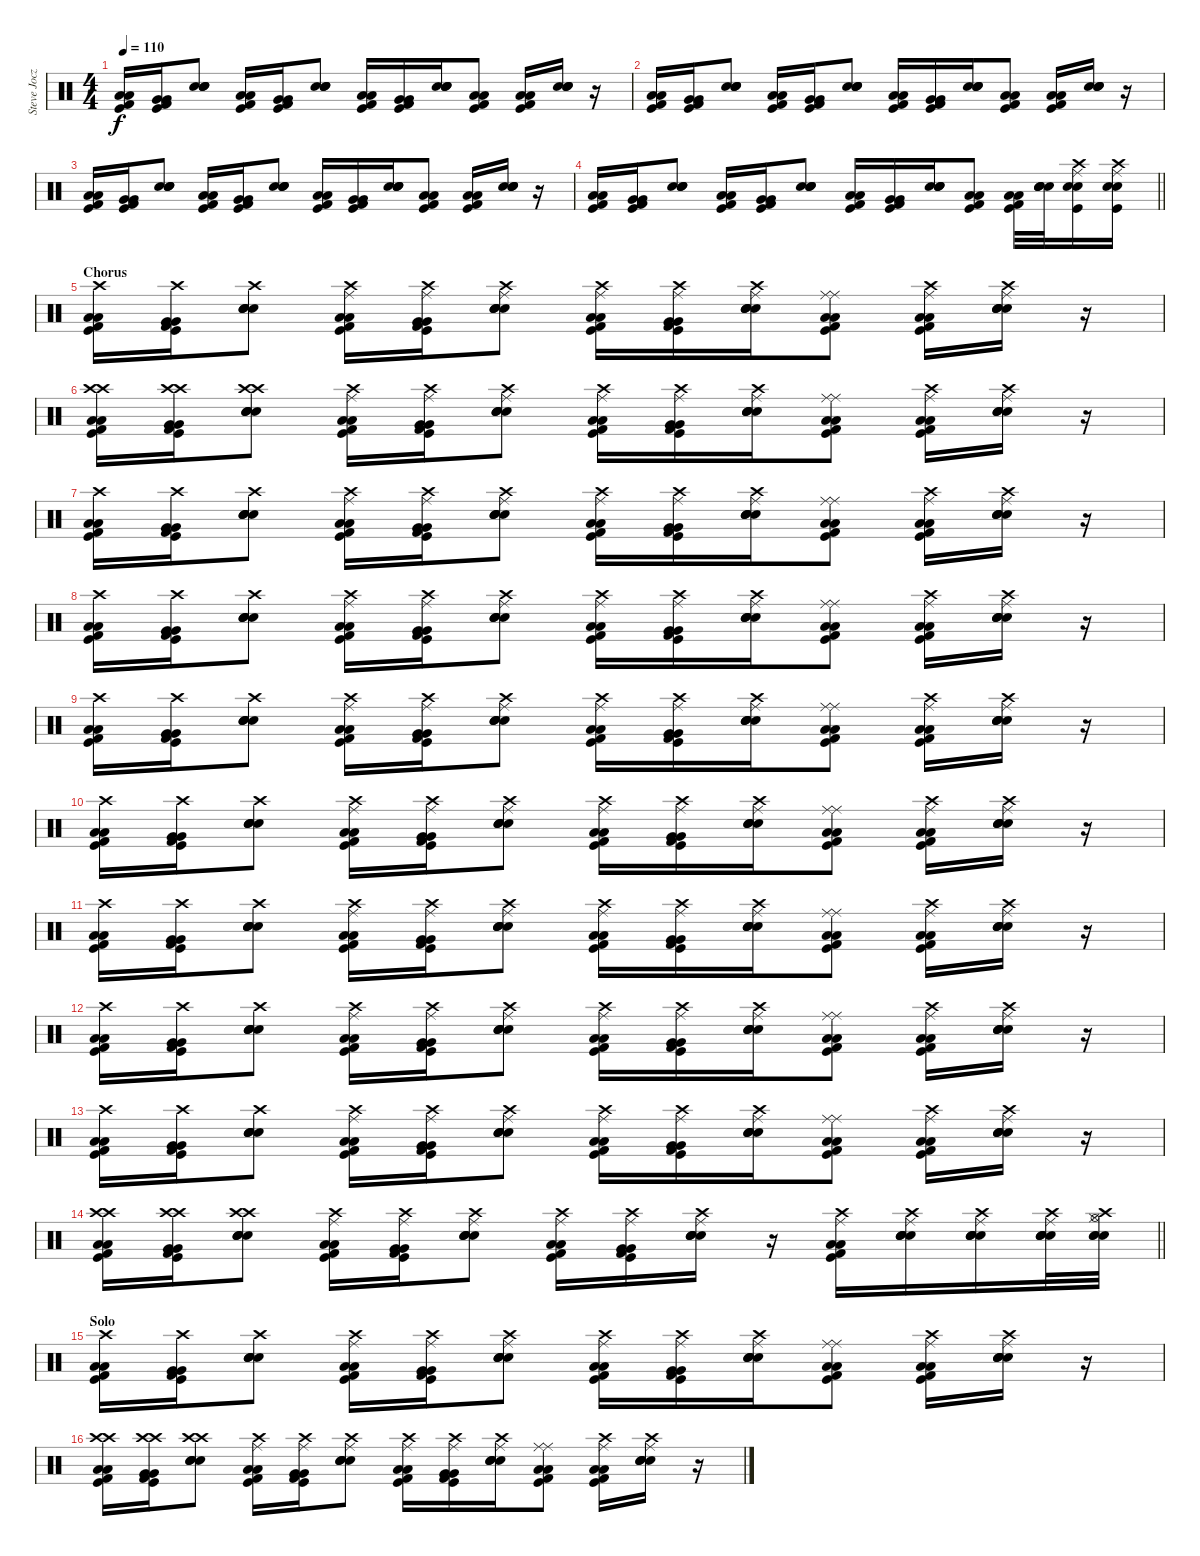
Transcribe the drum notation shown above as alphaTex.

\track ("Steve Jocz" "Steve Jocz") {instrument percussion}
\staff {score}
\articulation defaults
\ts (4 4)
\tempo 110
\clef neutral
\ks c
("Low Floor Tom (hit)" "Low Floor Tom (hit)" "Kick (hit)" "Kick (hit) 2").16{dy f} ("Very Low Tom (hit)" "Very Low Tom (hit)" "Kick (hit)" "Kick (hit) 2").16 ("Snare (hit) 2" "Snare (hit) 2" "Electric Snare (hit)" "Electric Snare (hit)").8 ("Low Floor Tom (hit)" "Low Floor Tom (hit)" "Kick (hit)" "Kick (hit) 2").16 ("Very Low Tom (hit)" "Very Low Tom (hit)" "Kick (hit)" "Kick (hit) 2").16 ("Snare (hit) 2" "Snare (hit) 2" "Electric Snare (hit)" "Electric Snare (hit)").8 ("Low Floor Tom (hit)" "Low Floor Tom (hit)" "Kick (hit)" "Kick (hit) 2").16 ("Very Low Tom (hit)" "Very Low Tom (hit)" "Kick (hit)" "Kick (hit) 2").16 ("Snare (hit) 2" "Snare (hit) 2" "Electric Snare (hit)" "Electric Snare (hit)").16 ("Low Floor Tom (hit)" "Low Floor Tom (hit)" "Kick (hit)" "Kick (hit) 2").8 ("Low Floor Tom (hit)" "Low Floor Tom (hit)" "Kick (hit)" "Kick (hit) 2").16 ("Snare (hit) 2" "Snare (hit) 2" "Electric Snare (hit)" "Electric Snare (hit)").16 r.16 |
("Low Floor Tom (hit)" "Low Floor Tom (hit)" "Kick (hit)" "Kick (hit) 2").16 ("Very Low Tom (hit)" "Very Low Tom (hit)" "Kick (hit)" "Kick (hit) 2").16 ("Snare (hit) 2" "Snare (hit) 2" "Electric Snare (hit)" "Electric Snare (hit)").8 ("Low Floor Tom (hit)" "Low Floor Tom (hit)" "Kick (hit)" "Kick (hit) 2").16 ("Very Low Tom (hit)" "Very Low Tom (hit)" "Kick (hit)" "Kick (hit) 2").16 ("Snare (hit) 2" "Snare (hit) 2" "Electric Snare (hit)" "Electric Snare (hit)").8 ("Low Floor Tom (hit)" "Low Floor Tom (hit)" "Kick (hit)" "Kick (hit) 2").16 ("Very Low Tom (hit)" "Very Low Tom (hit)" "Kick (hit)" "Kick (hit) 2").16 ("Snare (hit) 2" "Snare (hit) 2" "Electric Snare (hit)" "Electric Snare (hit)").16 ("Low Floor Tom (hit)" "Low Floor Tom (hit)" "Kick (hit)" "Kick (hit) 2").8 ("Low Floor Tom (hit)" "Low Floor Tom (hit)" "Kick (hit)" "Kick (hit) 2").16 ("Snare (hit) 2" "Snare (hit) 2" "Electric Snare (hit)" "Electric Snare (hit)").16 r.16 |
("Low Floor Tom (hit)" "Low Floor Tom (hit)" "Kick (hit)" "Kick (hit) 2").16 ("Very Low Tom (hit)" "Very Low Tom (hit)" "Kick (hit)" "Kick (hit) 2").16 ("Snare (hit) 2" "Snare (hit) 2" "Electric Snare (hit)" "Electric Snare (hit)").8 ("Low Floor Tom (hit)" "Low Floor Tom (hit)" "Kick (hit)" "Kick (hit) 2").16 ("Very Low Tom (hit)" "Very Low Tom (hit)" "Kick (hit)" "Kick (hit) 2").16 ("Snare (hit) 2" "Snare (hit) 2" "Electric Snare (hit)" "Electric Snare (hit)").8 ("Low Floor Tom (hit)" "Low Floor Tom (hit)" "Kick (hit)" "Kick (hit) 2").16 ("Very Low Tom (hit)" "Very Low Tom (hit)" "Kick (hit)" "Kick (hit) 2").16 ("Snare (hit) 2" "Snare (hit) 2" "Electric Snare (hit)" "Electric Snare (hit)").16 ("Low Floor Tom (hit)" "Low Floor Tom (hit)" "Kick (hit)" "Kick (hit) 2").8 ("Low Floor Tom (hit)" "Low Floor Tom (hit)" "Kick (hit)" "Kick (hit) 2").16 ("Snare (hit) 2" "Snare (hit) 2" "Electric Snare (hit)" "Electric Snare (hit)").16 r.16 |
\barLineRight lightlight
("Low Floor Tom (hit)" "Low Floor Tom (hit)" "Kick (hit)" "Kick (hit) 2").16 ("Very Low Tom (hit)" "Very Low Tom (hit)" "Kick (hit)" "Kick (hit) 2").16 ("Snare (hit) 2" "Snare (hit) 2" "Electric Snare (hit)" "Electric Snare (hit)").8 ("Low Floor Tom (hit)" "Low Floor Tom (hit)" "Kick (hit)" "Kick (hit) 2").16 ("Very Low Tom (hit)" "Very Low Tom (hit)" "Kick (hit)" "Kick (hit) 2").16 ("Snare (hit) 2" "Snare (hit) 2" "Electric Snare (hit)" "Electric Snare (hit)").8 ("Low Floor Tom (hit)" "Low Floor Tom (hit)" "Kick (hit)" "Kick (hit) 2").16 ("Very Low Tom (hit)" "Very Low Tom (hit)" "Kick (hit)" "Kick (hit) 2").16 ("Snare (hit) 2" "Snare (hit) 2" "Electric Snare (hit)" "Electric Snare (hit)").16 ("Low Floor Tom (hit)" "Low Floor Tom (hit)" "Kick (hit)" "Kick (hit) 2").8 ("Low Floor Tom (hit)" "Low Floor Tom (hit)" "Kick (hit)" "Kick (hit) 2").32 ("Snare (hit) 2" "Snare (hit) 2" "Electric Snare (hit)" "Electric Snare (hit)").32 ("Snare (hit) 2" "Kick (hit)" "Electric Snare (hit)" "Crash high (hit)" "Ride (middle)").16 ("Snare (hit) 2" "Kick (hit)" "Electric Snare (hit)" "Crash high (hit)" "Ride (middle)").16 |
\section ("" "Chorus")
("Low Floor Tom (hit)" "Crash high (hit)" "Low Floor Tom (hit)" "Kick (hit)" "Kick (hit) 2").16 ("Very Low Tom (hit)" "Crash high (hit)" "Very Low Tom (hit)" "Kick (hit)" "Kick (hit) 2").16 ("Snare (hit) 2" "Crash high (hit)" "Snare (hit) 2" "Electric Snare (hit)" "Electric Snare (hit)").8 ("Low Floor Tom (hit)" "Ride (middle)" "Low Floor Tom (hit)" "Kick (hit)" "Crash high (hit)" "Kick (hit) 2").16 ("Very Low Tom (hit)" "Ride (middle)" "Very Low Tom (hit)" "Kick (hit)" "Crash high (hit)" "Kick (hit) 2").16 ("Snare (hit) 2" "Ride (middle)" "Snare (hit) 2" "Electric Snare (hit)" "Crash high (hit)" "Electric Snare (hit)").8 ("Low Floor Tom (hit)" "Ride (middle)" "Low Floor Tom (hit)" "Kick (hit)" "Crash high (hit)" "Kick (hit) 2").16 ("Very Low Tom (hit)" "Ride (middle)" "Very Low Tom (hit)" "Kick (hit)" "Crash high (hit)" "Kick (hit) 2").16 ("Snare (hit) 2" "Ride (middle)" "Snare (hit) 2" "Electric Snare (hit)" "Crash high (hit)" "Electric Snare (hit)").16 ("Low Floor Tom (hit)" "Ride (middle)" "Low Floor Tom (hit)" "Kick (hit)" "Ride (middle)" "Kick (hit) 2").8 ("Low Floor Tom (hit)" "Ride (middle)" "Low Floor Tom (hit)" "Kick (hit)" "Crash high (hit)" "Kick (hit) 2").16 ("Snare (hit) 2" "Ride (middle)" "Snare (hit) 2" "Electric Snare (hit)" "Crash high (hit)" "Electric Snare (hit)").16 r.16 |
("Low Floor Tom (hit)" "Crash high (hit)" "Low Floor Tom (hit)" "Kick (hit)" "Crash high (hit)" "Kick (hit) 2").16 ("Very Low Tom (hit)" "Crash high (hit)" "Very Low Tom (hit)" "Kick (hit)" "Crash high (hit)" "Kick (hit) 2").16 ("Snare (hit) 2" "Crash high (hit)" "Snare (hit) 2" "Electric Snare (hit)" "Crash high (hit)" "Electric Snare (hit)").8 ("Low Floor Tom (hit)" "Ride (middle)" "Low Floor Tom (hit)" "Kick (hit)" "Crash high (hit)" "Kick (hit) 2").16 ("Very Low Tom (hit)" "Ride (middle)" "Very Low Tom (hit)" "Kick (hit)" "Crash high (hit)" "Kick (hit) 2").16 ("Snare (hit) 2" "Ride (middle)" "Snare (hit) 2" "Electric Snare (hit)" "Crash high (hit)" "Electric Snare (hit)").8 ("Low Floor Tom (hit)" "Ride (middle)" "Low Floor Tom (hit)" "Kick (hit)" "Crash high (hit)" "Kick (hit) 2").16 ("Very Low Tom (hit)" "Ride (middle)" "Very Low Tom (hit)" "Kick (hit)" "Crash high (hit)" "Kick (hit) 2").16 ("Snare (hit) 2" "Ride (middle)" "Snare (hit) 2" "Electric Snare (hit)" "Crash high (hit)" "Electric Snare (hit)").16 ("Low Floor Tom (hit)" "Ride (middle)" "Low Floor Tom (hit)" "Kick (hit)" "Ride (middle)" "Kick (hit) 2").8 ("Low Floor Tom (hit)" "Ride (middle)" "Low Floor Tom (hit)" "Kick (hit)" "Crash high (hit)" "Kick (hit) 2").16 ("Snare (hit) 2" "Ride (middle)" "Snare (hit) 2" "Electric Snare (hit)" "Crash high (hit)" "Electric Snare (hit)").16 r.16 |
("Low Floor Tom (hit)" "Crash high (hit)" "Low Floor Tom (hit)" "Kick (hit)" "Kick (hit) 2").16 ("Very Low Tom (hit)" "Crash high (hit)" "Very Low Tom (hit)" "Kick (hit)" "Kick (hit) 2").16 ("Snare (hit) 2" "Crash high (hit)" "Snare (hit) 2" "Electric Snare (hit)" "Electric Snare (hit)").8 ("Low Floor Tom (hit)" "Ride (middle)" "Low Floor Tom (hit)" "Kick (hit)" "Crash high (hit)" "Kick (hit) 2").16 ("Very Low Tom (hit)" "Ride (middle)" "Very Low Tom (hit)" "Kick (hit)" "Crash high (hit)" "Kick (hit) 2").16 ("Snare (hit) 2" "Ride (middle)" "Snare (hit) 2" "Electric Snare (hit)" "Crash high (hit)" "Electric Snare (hit)").8 ("Low Floor Tom (hit)" "Ride (middle)" "Low Floor Tom (hit)" "Kick (hit)" "Crash high (hit)" "Kick (hit) 2").16 ("Very Low Tom (hit)" "Ride (middle)" "Very Low Tom (hit)" "Kick (hit)" "Crash high (hit)" "Kick (hit) 2").16 ("Snare (hit) 2" "Ride (middle)" "Snare (hit) 2" "Electric Snare (hit)" "Crash high (hit)" "Electric Snare (hit)").16 ("Low Floor Tom (hit)" "Ride (middle)" "Low Floor Tom (hit)" "Kick (hit)" "Ride (middle)" "Kick (hit) 2").8 ("Low Floor Tom (hit)" "Ride (middle)" "Low Floor Tom (hit)" "Kick (hit)" "Crash high (hit)" "Kick (hit) 2").16 ("Snare (hit) 2" "Ride (middle)" "Snare (hit) 2" "Electric Snare (hit)" "Crash high (hit)" "Electric Snare (hit)").16 r.16 |
("Low Floor Tom (hit)" "Crash high (hit)" "Low Floor Tom (hit)" "Kick (hit)" "Kick (hit) 2").16 ("Very Low Tom (hit)" "Crash high (hit)" "Very Low Tom (hit)" "Kick (hit)" "Kick (hit) 2").16 ("Snare (hit) 2" "Crash high (hit)" "Snare (hit) 2" "Electric Snare (hit)" "Electric Snare (hit)").8 ("Low Floor Tom (hit)" "Ride (middle)" "Low Floor Tom (hit)" "Kick (hit)" "Crash high (hit)" "Kick (hit) 2").16 ("Very Low Tom (hit)" "Ride (middle)" "Very Low Tom (hit)" "Kick (hit)" "Crash high (hit)" "Kick (hit) 2").16 ("Snare (hit) 2" "Ride (middle)" "Snare (hit) 2" "Electric Snare (hit)" "Crash high (hit)" "Electric Snare (hit)").8 ("Low Floor Tom (hit)" "Ride (middle)" "Low Floor Tom (hit)" "Kick (hit)" "Crash high (hit)" "Kick (hit) 2").16 ("Very Low Tom (hit)" "Ride (middle)" "Very Low Tom (hit)" "Kick (hit)" "Crash high (hit)" "Kick (hit) 2").16 ("Snare (hit) 2" "Ride (middle)" "Snare (hit) 2" "Electric Snare (hit)" "Crash high (hit)" "Electric Snare (hit)").16 ("Low Floor Tom (hit)" "Ride (middle)" "Low Floor Tom (hit)" "Kick (hit)" "Ride (middle)" "Kick (hit) 2").8 ("Low Floor Tom (hit)" "Ride (middle)" "Low Floor Tom (hit)" "Kick (hit)" "Crash high (hit)" "Kick (hit) 2").16 ("Snare (hit) 2" "Ride (middle)" "Snare (hit) 2" "Electric Snare (hit)" "Crash high (hit)" "Electric Snare (hit)").16 r.16 |
("Low Floor Tom (hit)" "Crash high (hit)" "Low Floor Tom (hit)" "Kick (hit)" "Kick (hit) 2").16 ("Very Low Tom (hit)" "Crash high (hit)" "Very Low Tom (hit)" "Kick (hit)" "Kick (hit) 2").16 ("Snare (hit) 2" "Crash high (hit)" "Snare (hit) 2" "Electric Snare (hit)" "Electric Snare (hit)").8 ("Low Floor Tom (hit)" "Ride (middle)" "Low Floor Tom (hit)" "Kick (hit)" "Crash high (hit)" "Kick (hit) 2").16 ("Very Low Tom (hit)" "Ride (middle)" "Very Low Tom (hit)" "Kick (hit)" "Crash high (hit)" "Kick (hit) 2").16 ("Snare (hit) 2" "Ride (middle)" "Snare (hit) 2" "Electric Snare (hit)" "Crash high (hit)" "Electric Snare (hit)").8 ("Low Floor Tom (hit)" "Ride (middle)" "Low Floor Tom (hit)" "Kick (hit)" "Crash high (hit)" "Kick (hit) 2").16 ("Very Low Tom (hit)" "Ride (middle)" "Very Low Tom (hit)" "Kick (hit)" "Crash high (hit)" "Kick (hit) 2").16 ("Snare (hit) 2" "Ride (middle)" "Snare (hit) 2" "Electric Snare (hit)" "Crash high (hit)" "Electric Snare (hit)").16 ("Low Floor Tom (hit)" "Ride (middle)" "Low Floor Tom (hit)" "Kick (hit)" "Ride (middle)" "Kick (hit) 2").8 ("Low Floor Tom (hit)" "Ride (middle)" "Low Floor Tom (hit)" "Kick (hit)" "Crash high (hit)" "Kick (hit) 2").16 ("Snare (hit) 2" "Ride (middle)" "Snare (hit) 2" "Electric Snare (hit)" "Crash high (hit)" "Electric Snare (hit)").16 r.16 |
("Low Floor Tom (hit)" "Crash high (hit)" "Low Floor Tom (hit)" "Kick (hit)" "Kick (hit) 2").16 ("Very Low Tom (hit)" "Crash high (hit)" "Very Low Tom (hit)" "Kick (hit)" "Kick (hit) 2").16 ("Snare (hit) 2" "Crash high (hit)" "Snare (hit) 2" "Electric Snare (hit)" "Electric Snare (hit)").8 ("Low Floor Tom (hit)" "Ride (middle)" "Low Floor Tom (hit)" "Kick (hit)" "Crash high (hit)" "Kick (hit) 2").16 ("Very Low Tom (hit)" "Ride (middle)" "Very Low Tom (hit)" "Kick (hit)" "Crash high (hit)" "Kick (hit) 2").16 ("Snare (hit) 2" "Ride (middle)" "Snare (hit) 2" "Electric Snare (hit)" "Crash high (hit)" "Electric Snare (hit)").8 ("Low Floor Tom (hit)" "Ride (middle)" "Low Floor Tom (hit)" "Kick (hit)" "Crash high (hit)" "Kick (hit) 2").16 ("Very Low Tom (hit)" "Ride (middle)" "Very Low Tom (hit)" "Kick (hit)" "Crash high (hit)" "Kick (hit) 2").16 ("Snare (hit) 2" "Ride (middle)" "Snare (hit) 2" "Electric Snare (hit)" "Crash high (hit)" "Electric Snare (hit)").16 ("Low Floor Tom (hit)" "Ride (middle)" "Low Floor Tom (hit)" "Kick (hit)" "Ride (middle)" "Kick (hit) 2").8 ("Low Floor Tom (hit)" "Ride (middle)" "Low Floor Tom (hit)" "Kick (hit)" "Crash high (hit)" "Kick (hit) 2").16 ("Snare (hit) 2" "Ride (middle)" "Snare (hit) 2" "Electric Snare (hit)" "Crash high (hit)" "Electric Snare (hit)").16 r.16 |
("Low Floor Tom (hit)" "Crash high (hit)" "Low Floor Tom (hit)" "Kick (hit)" "Kick (hit) 2").16 ("Very Low Tom (hit)" "Crash high (hit)" "Very Low Tom (hit)" "Kick (hit)" "Kick (hit) 2").16 ("Snare (hit) 2" "Crash high (hit)" "Snare (hit) 2" "Electric Snare (hit)" "Electric Snare (hit)").8 ("Low Floor Tom (hit)" "Ride (middle)" "Low Floor Tom (hit)" "Kick (hit)" "Crash high (hit)" "Kick (hit) 2").16 ("Very Low Tom (hit)" "Ride (middle)" "Very Low Tom (hit)" "Kick (hit)" "Crash high (hit)" "Kick (hit) 2").16 ("Snare (hit) 2" "Ride (middle)" "Snare (hit) 2" "Electric Snare (hit)" "Crash high (hit)" "Electric Snare (hit)").8 ("Low Floor Tom (hit)" "Ride (middle)" "Low Floor Tom (hit)" "Kick (hit)" "Crash high (hit)" "Kick (hit) 2").16 ("Very Low Tom (hit)" "Ride (middle)" "Very Low Tom (hit)" "Kick (hit)" "Crash high (hit)" "Kick (hit) 2").16 ("Snare (hit) 2" "Ride (middle)" "Snare (hit) 2" "Electric Snare (hit)" "Crash high (hit)" "Electric Snare (hit)").16 ("Low Floor Tom (hit)" "Ride (middle)" "Low Floor Tom (hit)" "Kick (hit)" "Ride (middle)" "Kick (hit) 2").8 ("Low Floor Tom (hit)" "Ride (middle)" "Low Floor Tom (hit)" "Kick (hit)" "Crash high (hit)" "Kick (hit) 2").16 ("Snare (hit) 2" "Ride (middle)" "Snare (hit) 2" "Electric Snare (hit)" "Crash high (hit)" "Electric Snare (hit)").16 r.16 |
("Low Floor Tom (hit)" "Crash high (hit)" "Low Floor Tom (hit)" "Kick (hit)" "Kick (hit) 2").16 ("Very Low Tom (hit)" "Crash high (hit)" "Very Low Tom (hit)" "Kick (hit)" "Kick (hit) 2").16 ("Snare (hit) 2" "Crash high (hit)" "Snare (hit) 2" "Electric Snare (hit)" "Electric Snare (hit)").8 ("Low Floor Tom (hit)" "Ride (middle)" "Low Floor Tom (hit)" "Kick (hit)" "Crash high (hit)" "Kick (hit) 2").16 ("Very Low Tom (hit)" "Ride (middle)" "Very Low Tom (hit)" "Kick (hit)" "Crash high (hit)" "Kick (hit) 2").16 ("Snare (hit) 2" "Ride (middle)" "Snare (hit) 2" "Electric Snare (hit)" "Crash high (hit)" "Electric Snare (hit)").8 ("Low Floor Tom (hit)" "Ride (middle)" "Low Floor Tom (hit)" "Kick (hit)" "Crash high (hit)" "Kick (hit) 2").16 ("Very Low Tom (hit)" "Ride (middle)" "Very Low Tom (hit)" "Kick (hit)" "Crash high (hit)" "Kick (hit) 2").16 ("Snare (hit) 2" "Ride (middle)" "Snare (hit) 2" "Electric Snare (hit)" "Crash high (hit)" "Electric Snare (hit)").16 ("Low Floor Tom (hit)" "Ride (middle)" "Low Floor Tom (hit)" "Kick (hit)" "Ride (middle)" "Kick (hit) 2").8 ("Low Floor Tom (hit)" "Ride (middle)" "Low Floor Tom (hit)" "Kick (hit)" "Crash high (hit)" "Kick (hit) 2").16 ("Snare (hit) 2" "Ride (middle)" "Snare (hit) 2" "Electric Snare (hit)" "Crash high (hit)" "Electric Snare (hit)").16 r.16 |
("Low Floor Tom (hit)" "Crash high (hit)" "Low Floor Tom (hit)" "Kick (hit)" "Kick (hit) 2").16 ("Very Low Tom (hit)" "Crash high (hit)" "Very Low Tom (hit)" "Kick (hit)" "Kick (hit) 2").16 ("Snare (hit) 2" "Crash high (hit)" "Snare (hit) 2" "Electric Snare (hit)" "Electric Snare (hit)").8 ("Low Floor Tom (hit)" "Ride (middle)" "Low Floor Tom (hit)" "Kick (hit)" "Crash high (hit)" "Kick (hit) 2").16 ("Very Low Tom (hit)" "Ride (middle)" "Very Low Tom (hit)" "Kick (hit)" "Crash high (hit)" "Kick (hit) 2").16 ("Snare (hit) 2" "Ride (middle)" "Snare (hit) 2" "Electric Snare (hit)" "Crash high (hit)" "Electric Snare (hit)").8 ("Low Floor Tom (hit)" "Ride (middle)" "Low Floor Tom (hit)" "Kick (hit)" "Crash high (hit)" "Kick (hit) 2").16 ("Very Low Tom (hit)" "Ride (middle)" "Very Low Tom (hit)" "Kick (hit)" "Crash high (hit)" "Kick (hit) 2").16 ("Snare (hit) 2" "Ride (middle)" "Snare (hit) 2" "Electric Snare (hit)" "Crash high (hit)" "Electric Snare (hit)").16 ("Low Floor Tom (hit)" "Ride (middle)" "Low Floor Tom (hit)" "Kick (hit)" "Ride (middle)" "Kick (hit) 2").8 ("Low Floor Tom (hit)" "Ride (middle)" "Low Floor Tom (hit)" "Kick (hit)" "Crash high (hit)" "Kick (hit) 2").16 ("Snare (hit) 2" "Ride (middle)" "Snare (hit) 2" "Electric Snare (hit)" "Crash high (hit)" "Electric Snare (hit)").16 r.16 |
\barLineRight lightlight
("Low Floor Tom (hit)" "Crash high (hit)" "Low Floor Tom (hit)" "Kick (hit)" "Crash high (hit)" "Kick (hit) 2").16 ("Very Low Tom (hit)" "Crash high (hit)" "Very Low Tom (hit)" "Kick (hit)" "Crash high (hit)" "Kick (hit) 2").16 ("Snare (hit) 2" "Crash high (hit)" "Snare (hit) 2" "Electric Snare (hit)" "Crash high (hit)" "Electric Snare (hit)").8 ("Low Floor Tom (hit)" "Ride (middle)" "Low Floor Tom (hit)" "Kick (hit)" "Crash high (hit)" "Kick (hit) 2").16 ("Very Low Tom (hit)" "Ride (middle)" "Very Low Tom (hit)" "Kick (hit)" "Crash high (hit)" "Kick (hit) 2").16 ("Snare (hit) 2" "Ride (middle)" "Snare (hit) 2" "Electric Snare (hit)" "Crash high (hit)" "Electric Snare (hit)").8 ("Low Floor Tom (hit)" "Ride (middle)" "Low Floor Tom (hit)" "Kick (hit)" "Crash high (hit)" "Kick (hit) 2").16 ("Very Low Tom (hit)" "Ride (middle)" "Very Low Tom (hit)" "Kick (hit)" "Crash high (hit)" "Kick (hit) 2").16 ("Snare (hit) 2" "Ride (middle)" "Snare (hit) 2" "Electric Snare (hit)" "Crash high (hit)" "Electric Snare (hit)").16 r.16 ("Low Floor Tom (hit)" "Ride (middle)" "Low Floor Tom (hit)" "Kick (hit)" "Crash high (hit)" "Kick (hit) 2").16 ("Snare (hit) 2" "Ride (middle)" "Snare (hit) 2" "Electric Snare (hit)" "Crash high (hit)" "Electric Snare (hit)").16 ("Snare (hit) 2" "Ride (middle)" "Snare (hit) 2" "Electric Snare (hit)" "Crash high (hit)" "Electric Snare (hit)").16 ("Snare (hit) 2" "Ride (middle)" "Snare (hit) 2" "Electric Snare (hit)" "Crash high (hit)" "Electric Snare (hit)").32 ("Snare (hit) 2" "Snare (hit) 2" "Electric Snare (hit)" "Crash high (hit)" "Hi-Hat (open)" "Hi-Hat (closed)").32 |
\section ("" "Solo ")
("Low Floor Tom (hit)" "Crash high (hit)" "Low Floor Tom (hit)" "Kick (hit)" "Kick (hit) 2").16 ("Very Low Tom (hit)" "Crash high (hit)" "Very Low Tom (hit)" "Kick (hit)" "Kick (hit) 2").16 ("Snare (hit) 2" "Crash high (hit)" "Snare (hit) 2" "Electric Snare (hit)" "Electric Snare (hit)").8 ("Low Floor Tom (hit)" "Ride (middle)" "Low Floor Tom (hit)" "Kick (hit)" "Crash high (hit)" "Kick (hit) 2").16 ("Very Low Tom (hit)" "Ride (middle)" "Very Low Tom (hit)" "Kick (hit)" "Crash high (hit)" "Kick (hit) 2").16 ("Snare (hit) 2" "Ride (middle)" "Snare (hit) 2" "Electric Snare (hit)" "Crash high (hit)" "Electric Snare (hit)").8 ("Low Floor Tom (hit)" "Ride (middle)" "Low Floor Tom (hit)" "Kick (hit)" "Crash high (hit)" "Kick (hit) 2").16 ("Very Low Tom (hit)" "Ride (middle)" "Very Low Tom (hit)" "Kick (hit)" "Crash high (hit)" "Kick (hit) 2").16 ("Snare (hit) 2" "Ride (middle)" "Snare (hit) 2" "Electric Snare (hit)" "Crash high (hit)" "Electric Snare (hit)").16 ("Low Floor Tom (hit)" "Ride (middle)" "Low Floor Tom (hit)" "Kick (hit)" "Ride (middle)" "Kick (hit) 2").8 ("Low Floor Tom (hit)" "Ride (middle)" "Low Floor Tom (hit)" "Kick (hit)" "Crash high (hit)" "Kick (hit) 2").16 ("Snare (hit) 2" "Ride (middle)" "Snare (hit) 2" "Electric Snare (hit)" "Crash high (hit)" "Electric Snare (hit)").16 r.16 |
("Low Floor Tom (hit)" "Crash high (hit)" "Low Floor Tom (hit)" "Kick (hit)" "Crash high (hit)" "Kick (hit) 2").16 ("Very Low Tom (hit)" "Crash high (hit)" "Very Low Tom (hit)" "Kick (hit)" "Crash high (hit)" "Kick (hit) 2").16 ("Snare (hit) 2" "Crash high (hit)" "Snare (hit) 2" "Electric Snare (hit)" "Crash high (hit)" "Electric Snare (hit)").8 ("Low Floor Tom (hit)" "Ride (middle)" "Low Floor Tom (hit)" "Kick (hit)" "Crash high (hit)" "Kick (hit) 2").16 ("Very Low Tom (hit)" "Ride (middle)" "Very Low Tom (hit)" "Kick (hit)" "Crash high (hit)" "Kick (hit) 2").16 ("Snare (hit) 2" "Ride (middle)" "Snare (hit) 2" "Electric Snare (hit)" "Crash high (hit)" "Electric Snare (hit)").8 ("Low Floor Tom (hit)" "Ride (middle)" "Low Floor Tom (hit)" "Kick (hit)" "Crash high (hit)" "Kick (hit) 2").16 ("Very Low Tom (hit)" "Ride (middle)" "Very Low Tom (hit)" "Kick (hit)" "Crash high (hit)" "Kick (hit) 2").16 ("Snare (hit) 2" "Ride (middle)" "Snare (hit) 2" "Electric Snare (hit)" "Crash high (hit)" "Electric Snare (hit)").16 ("Low Floor Tom (hit)" "Ride (middle)" "Low Floor Tom (hit)" "Kick (hit)" "Ride (middle)" "Kick (hit) 2").8 ("Low Floor Tom (hit)" "Ride (middle)" "Low Floor Tom (hit)" "Kick (hit)" "Crash high (hit)" "Kick (hit) 2").16 ("Snare (hit) 2" "Ride (middle)" "Snare (hit) 2" "Electric Snare (hit)" "Crash high (hit)" "Electric Snare (hit)").16 r.16
